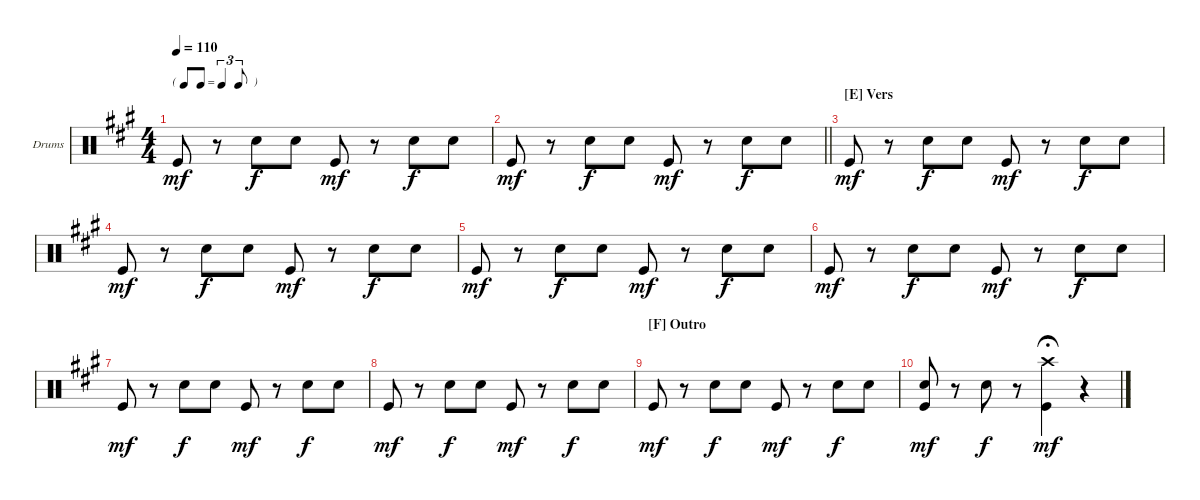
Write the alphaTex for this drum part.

\defaultSystemsLayout 4
\bracketExtendMode groupsimilarinstruments
\firstSystemTrackNameOrientation horizontal
\otherSystemsTrackNameOrientation horizontal
\track ("Drumkit" "Drums") {instrument percussion}
\staff {score}
\articulation defaults
\ts (4 4)
\tf triplet8th
\tempo 110
\clef neutral
\scale
0.333333
\ks a "Kick (hit)".8{dy mf}
r.8 "Snare (hit) 2".8{dy f} "Snare (hit) 2".8 "Kick (hit)".8{dy mf} r.8 "Snare (hit) 2".8{dy f} "Snare (hit) 2".8 |
\scale
0.333333
\barLineRight lightlight "Kick (hit)".8{dy mf}
r.8 "Snare (hit) 2".8{dy f} "Snare (hit) 2".8 "Kick (hit)".8{dy mf} r.8 "Snare (hit) 2".8{dy f} "Snare (hit) 2".8 |
\section ("E" "Vers")
\scale
0.333333 "Kick (hit)".8{dy mf} r.8 "Snare (hit) 2".8{dy f} "Snare (hit) 2".8 "Kick (hit)".8{dy mf} r.8 "Snare (hit) 2".8{dy f} "Snare (hit) 2".8 |
\scale
0.333333 "Kick (hit)".8{dy mf} r.8 "Snare (hit) 2".8{dy f} "Snare (hit) 2".8 "Kick (hit)".8{dy mf} r.8 "Snare (hit) 2".8{dy f} "Snare (hit) 2".8 |
\scale
0.333333 "Kick (hit)".8{dy mf} r.8 "Snare (hit) 2".8{dy f} "Snare (hit) 2".8 "Kick (hit)".8{dy mf} r.8 "Snare (hit) 2".8{dy f} "Snare (hit) 2".8 |
\scale
0.333333 "Kick (hit)".8{dy mf} r.8 "Snare (hit) 2".8{dy f} "Snare (hit) 2".8 "Kick (hit)".8{dy mf} r.8 "Snare (hit) 2".8{dy f} "Snare (hit) 2".8 |
\scale
0.333333 "Kick (hit)".8{dy mf} r.8 "Snare (hit) 2".8{dy f} "Snare (hit) 2".8 "Kick (hit)".8{dy mf} r.8 "Snare (hit) 2".8{dy f} "Snare (hit) 2".8 |
\scale
0.333333 "Kick (hit)".8{dy mf} r.8 "Snare (hit) 2".8{dy f} "Snare (hit) 2".8 "Kick (hit)".8{dy mf} r.8 "Snare (hit) 2".8{dy f} "Snare (hit) 2".8 |
\section ("F" "Outro")
\scale
0.333333 "Kick (hit)".8{dy mf} r.8 "Snare (hit) 2".8{dy f} "Snare (hit) 2".8 "Kick (hit)".8{dy mf} r.8 "Snare (hit) 2".8{dy f} "Snare (hit) 2".8 |
("Snare (hit) 2" "Kick (hit)").8{dy mf} r.8 "Snare (hit) 2".8{dy f} r.8 ("Kick (hit)" "Crash high (hit)").4{dy mf fermata (medium 0.5)} r.4
